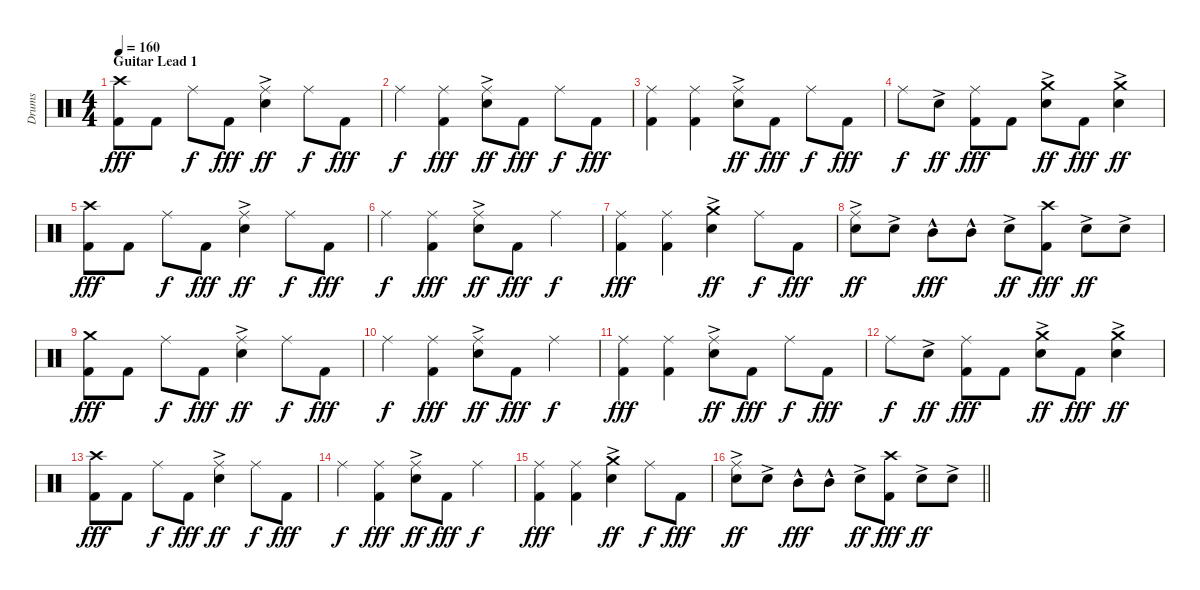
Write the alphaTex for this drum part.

\track ("Drums" "Drums") {instrument percussion}
\staff {score}
\articulation defaults
\ts (4 4)
\section ("" "Guitar Lead 1")
\tempo 160
\clef neutral
\ks c
("Crash high (hit)" "Kick (hit) 2").8{dy fff} "Kick (hit) 2".8 "Ride (middle)".8{dy f} "Kick (hit) 2".8{dy fff} ("Ride (middle)" "Snare (hit) 2"{ac}).4{dy ff} "Ride (middle)".8{dy f} "Kick (hit) 2".8{dy fff} |
"Ride (middle)".4{dy f} ("Ride (middle)" "Kick (hit) 2").4{dy fff} ("Ride (middle)" "Snare (hit) 2"{ac}).8{dy ff} "Kick (hit) 2".8{dy fff} "Ride (middle)".8{dy f} "Kick (hit) 2".8{dy fff} |
("Ride (middle)" "Kick (hit) 2").4 ("Ride (middle)" "Kick (hit) 2").4 ("Ride (middle)" "Snare (hit) 2"{ac}).8{dy ff} "Kick (hit) 2".8{dy fff} "Ride (middle)".8{dy f} "Kick (hit) 2".8{dy fff} |
"Ride (middle)".8{dy f} "Snare (hit) 2"{ac}.8{dy ff} ("Ride (middle)" "Kick (hit) 2").8{dy fff} "Kick (hit) 2".8 ("Crash medium (hit)" "Snare (hit) 2"{ac}).8{dy ff} "Kick (hit) 2".8{dy fff} ("Crash medium (hit)" "Snare (hit) 2"{ac}).4{dy ff} |
("Crash high (hit)" "Kick (hit) 2").8{dy fff} "Kick (hit) 2".8 "Ride (middle)".8{dy f} "Kick (hit) 2".8{dy fff} ("Ride (middle)" "Snare (hit) 2"{ac}).4{dy ff} "Ride (middle)".8{dy f} "Kick (hit) 2".8{dy fff} |
"Ride (middle)".4{dy f} ("Ride (middle)" "Kick (hit) 2").4{dy fff} ("Ride (middle)" "Snare (hit) 2"{ac}).8{dy ff} "Kick (hit) 2".8{dy fff} "Ride (middle)".4{dy f} |
("Ride (middle)" "Kick (hit) 2").4{dy fff} ("Ride (middle)" "Kick (hit) 2").4 ("Crash medium (hit)" "Snare (hit) 2"{ac}).4{dy ff} "Ride (middle)".8{dy f} "Kick (hit) 2".8{dy fff} |
("Ride (middle)" "Snare (hit) 2"{ac}).8{dy ff} "Snare (hit) 2"{ac}.8 "Mid Tom (hit)"{hac}.8{dy fff} "Mid Tom (hit)"{hac}.8 "Snare (hit) 2"{ac}.8{dy ff} ("Crash high (hit)" "Kick (hit) 2").8{dy fff} "Snare (hit) 2"{ac}.8{dy ff} "Snare (hit) 2"{ac}.8 |
("Crash medium (hit)" "Kick (hit) 2").8{dy fff} "Kick (hit) 2".8 "Ride (middle)".8{dy f} "Kick (hit) 2".8{dy fff} ("Ride (middle)" "Snare (hit) 2"{ac}).4{dy ff} "Ride (middle)".8{dy f} "Kick (hit) 2".8{dy fff} |
"Ride (middle)".4{dy f} ("Ride (middle)" "Kick (hit) 2").4{dy fff} ("Ride (middle)" "Snare (hit) 2"{ac}).8{dy ff} "Kick (hit) 2".8{dy fff} "Ride (middle)".4{dy f} |
("Ride (middle)" "Kick (hit) 2").4{dy fff} ("Ride (middle)" "Kick (hit) 2").4 ("Ride (middle)" "Snare (hit) 2"{ac}).8{dy ff} "Kick (hit) 2".8{dy fff} "Ride (middle)".8{dy f} "Kick (hit) 2".8{dy fff} |
"Ride (middle)".8{dy f} "Snare (hit) 2"{ac}.8{dy ff} ("Ride (middle)" "Kick (hit) 2").8{dy fff} "Kick (hit) 2".8 ("Crash medium (hit)" "Snare (hit) 2"{ac}).8{dy ff} "Kick (hit) 2".8{dy fff} ("Crash medium (hit)" "Snare (hit) 2"{ac}).4{dy ff} |
("Crash high (hit)" "Kick (hit) 2").8{dy fff} "Kick (hit) 2".8 "Ride (middle)".8{dy f} "Kick (hit) 2".8{dy fff} ("Ride (middle)" "Snare (hit) 2"{ac}).4{dy ff} "Ride (middle)".8{dy f} "Kick (hit) 2".8{dy fff} |
"Ride (middle)".4{dy f} ("Ride (middle)" "Kick (hit) 2").4{dy fff} ("Ride (middle)" "Snare (hit) 2"{ac}).8{dy ff} "Kick (hit) 2".8{dy fff} "Ride (middle)".4{dy f} |
("Ride (middle)" "Kick (hit) 2").4{dy fff} ("Ride (middle)" "Kick (hit) 2").4 ("Crash medium (hit)" "Snare (hit) 2"{ac}).4{dy ff} "Ride (middle)".8{dy f} "Kick (hit) 2".8{dy fff} |
\barLineRight lightlight
("Ride (middle)" "Snare (hit) 2"{ac}).8{dy ff} "Snare (hit) 2"{ac}.8 "Mid Tom (hit)"{hac}.8{dy fff} "Mid Tom (hit)"{hac}.8 "Snare (hit) 2"{ac}.8{dy ff} ("Crash high (hit)" "Kick (hit) 2").8{dy fff} "Snare (hit) 2"{ac}.8{dy ff} "Snare (hit) 2"{ac}.8
